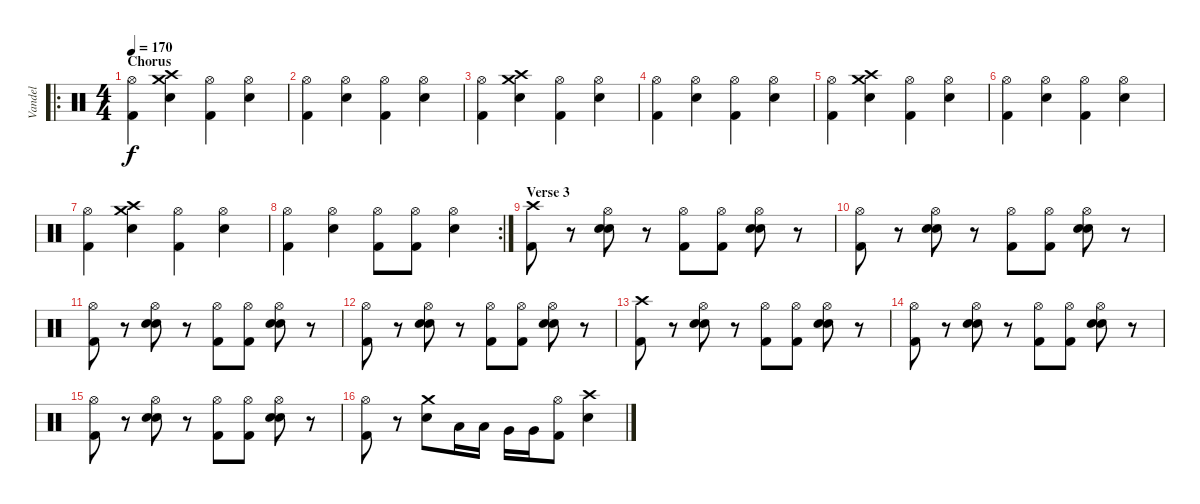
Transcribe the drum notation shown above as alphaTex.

\track ("Vandel" "Vandel") {instrument percussion}
\staff {score}
\articulation defaults
\ro
\ts (4 4)
\section ("" "Chorus")
\tempo 170
\clef neutral
\ks c
("Hi-Hat (open)" "Kick (hit) 2").4{dy f} ("Crash high (hit)" "Crash medium (hit)" "Electric Snare (hit)").4 ("Hi-Hat (open)" "Kick (hit) 2").4 ("Hi-Hat (open)" "Electric Snare (hit)").4 |
("Hi-Hat (open)" "Kick (hit) 2").4 ("Hi-Hat (open)" "Electric Snare (hit)").4 ("Hi-Hat (open)" "Kick (hit) 2").4 ("Hi-Hat (open)" "Electric Snare (hit)").4 |
("Hi-Hat (open)" "Kick (hit) 2").4 ("Crash medium (hit)" "Crash high (hit)" "Electric Snare (hit)").4 ("Hi-Hat (open)" "Kick (hit) 2").4 ("Hi-Hat (open)" "Electric Snare (hit)").4 |
("Hi-Hat (open)" "Kick (hit) 2").4 ("Hi-Hat (open)" "Electric Snare (hit)").4 ("Hi-Hat (open)" "Kick (hit) 2").4 ("Hi-Hat (open)" "Electric Snare (hit)").4 |
("Hi-Hat (open)" "Kick (hit) 2").4 ("Crash high (hit)" "Crash medium (hit)" "Electric Snare (hit)").4 ("Hi-Hat (open)" "Kick (hit) 2").4 ("Hi-Hat (open)" "Electric Snare (hit)").4 |
("Hi-Hat (open)" "Kick (hit) 2").4 ("Hi-Hat (open)" "Electric Snare (hit)").4 ("Hi-Hat (open)" "Kick (hit) 2").4 ("Hi-Hat (open)" "Electric Snare (hit)").4 |
("Hi-Hat (open)" "Kick (hit) 2").4 ("Crash medium (hit)" "Crash high (hit)" "Electric Snare (hit)").4 ("Hi-Hat (open)" "Kick (hit) 2").4 ("Hi-Hat (open)" "Electric Snare (hit)").4 |
\rc 2
("Hi-Hat (open)" "Kick (hit) 2").4 ("Hi-Hat (open)" "Electric Snare (hit)").4 ("Hi-Hat (open)" "Kick (hit) 2").8 ("Hi-Hat (open)" "Kick (hit) 2").8 ("Hi-Hat (open)" "Electric Snare (hit)").4 |
\section ("" "Verse 3")
("Crash high (hit)" "Kick (hit) 2").8 r.8 ("Hi-Hat (open)" "Electric Snare (hit)" "Electric Snare (hit)").8 r.8 ("Hi-Hat (open)" "Kick (hit) 2").8 ("Hi-Hat (open)" "Kick (hit) 2").8 ("Hi-Hat (open)" "Electric Snare (hit)" "Electric Snare (hit)").8 r.8 |
("Hi-Hat (open)" "Kick (hit) 2").8 r.8 ("Hi-Hat (open)" "Electric Snare (hit)" "Electric Snare (hit)").8 r.8 ("Hi-Hat (open)" "Kick (hit) 2").8 ("Hi-Hat (open)" "Kick (hit) 2").8 ("Hi-Hat (open)" "Electric Snare (hit)" "Electric Snare (hit)").8 r.8 |
("Hi-Hat (open)" "Kick (hit) 2").8 r.8 ("Hi-Hat (open)" "Electric Snare (hit)" "Electric Snare (hit)").8 r.8 ("Hi-Hat (open)" "Kick (hit) 2").8 ("Hi-Hat (open)" "Kick (hit) 2").8 ("Hi-Hat (open)" "Electric Snare (hit)" "Electric Snare (hit)").8 r.8 |
("Hi-Hat (open)" "Kick (hit) 2").8 r.8 ("Hi-Hat (open)" "Electric Snare (hit)" "Electric Snare (hit)").8 r.8 ("Hi-Hat (open)" "Kick (hit) 2").8 ("Hi-Hat (open)" "Kick (hit) 2").8 ("Hi-Hat (open)" "Electric Snare (hit)" "Electric Snare (hit)").8 r.8 |
("Crash high (hit)" "Kick (hit) 2").8 r.8 ("Hi-Hat (open)" "Electric Snare (hit)" "Electric Snare (hit)").8 r.8 ("Hi-Hat (open)" "Kick (hit) 2").8 ("Hi-Hat (open)" "Kick (hit) 2").8 ("Hi-Hat (open)" "Electric Snare (hit)" "Electric Snare (hit)").8 r.8 |
("Hi-Hat (open)" "Kick (hit) 2").8 r.8 ("Hi-Hat (open)" "Electric Snare (hit)" "Electric Snare (hit)").8 r.8 ("Hi-Hat (open)" "Kick (hit) 2").8 ("Hi-Hat (open)" "Kick (hit) 2").8 ("Hi-Hat (open)" "Electric Snare (hit)" "Electric Snare (hit)").8 r.8 |
("Hi-Hat (open)" "Kick (hit) 2").8 r.8 ("Hi-Hat (open)" "Electric Snare (hit)" "Electric Snare (hit)").8 r.8 ("Hi-Hat (open)" "Kick (hit) 2").8 ("Hi-Hat (open)" "Kick (hit) 2").8 ("Hi-Hat (open)" "Electric Snare (hit)" "Electric Snare (hit)").8 r.8 |
("Hi-Hat (open)" "Kick (hit) 2").8 r.8 ("Crash medium (hit)" "Electric Snare (hit)").8 "Low Tom (hit)".16 "Low Tom (hit)".16 "Very Low Tom (hit)".16 "Very Low Tom (hit)".16 ("Hi-Hat (open)" "Kick (hit) 2").8 ("Crash high (hit)" "Electric Snare (hit)").4
